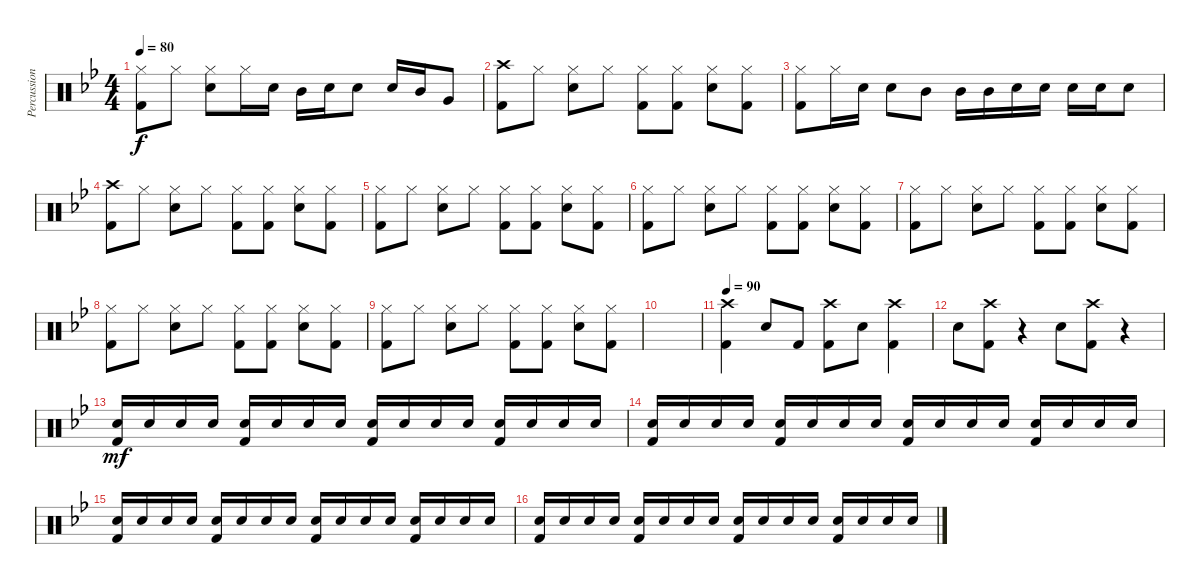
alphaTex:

\track ("Percussion" "Percussion") {instrument percussion}
\staff {score}
\articulation defaults
\ts (4 4)
\tempo 80
\clef neutral
\ks bb
("Hi-Hat (closed)" "Kick (hit) 2").8{dy f} "Hi-Hat (closed)".8 ("Hi-Hat (closed)" "Snare (hit) 2").8 "Hi-Hat (closed)".16 "Snare (hit) 2".16 "Mid Tom (hit)".16 "Snare (hit) 2".16 "Snare (hit) 2".8 "Snare (hit) 2".16 "Mid Tom (hit)".16 "Very Low Tom (hit)".8 |
("Crash high (hit)" "Kick (hit) 2").8 "Hi-Hat (closed)".8 ("Hi-Hat (closed)" "Snare (hit) 2").8 "Hi-Hat (closed)".8 ("Hi-Hat (closed)" "Kick (hit) 2").8 ("Hi-Hat (closed)" "Kick (hit) 2").8 ("Hi-Hat (closed)" "Snare (hit) 2").8 ("Hi-Hat (closed)" "Kick (hit) 2").8 |
("Hi-Hat (closed)" "Kick (hit) 2").8 "Hi-Hat (closed)".16 "Snare (hit) 2".16 "Snare (hit) 2".8 "Mid Tom (hit)".8 "Mid Tom (hit)".16 "Mid Tom (hit)".16 "Snare (hit) 2".16 "Snare (hit) 2".16 "Snare (hit) 2".16 "Snare (hit) 2".16 "Snare (hit) 2".8 |
("Crash high (hit)" "Kick (hit) 2").8 "Hi-Hat (closed)".8 ("Hi-Hat (closed)" "Snare (hit) 2").8 "Hi-Hat (closed)".8 ("Hi-Hat (closed)" "Kick (hit) 2").8 ("Hi-Hat (closed)" "Kick (hit) 2").8 ("Hi-Hat (closed)" "Snare (hit) 2").8 ("Hi-Hat (closed)" "Kick (hit) 2").8 |
("Hi-Hat (closed)" "Kick (hit) 2").8 "Hi-Hat (closed)".8 ("Hi-Hat (closed)" "Snare (hit) 2").8 "Hi-Hat (closed)".8 ("Hi-Hat (closed)" "Kick (hit) 2").8 ("Hi-Hat (closed)" "Kick (hit) 2").8 ("Hi-Hat (closed)" "Snare (hit) 2").8 ("Hi-Hat (closed)" "Kick (hit) 2").8 |
("Hi-Hat (closed)" "Kick (hit) 2").8 "Hi-Hat (closed)".8 ("Hi-Hat (closed)" "Snare (hit) 2").8 "Hi-Hat (closed)".8 ("Hi-Hat (closed)" "Kick (hit) 2").8 ("Hi-Hat (closed)" "Kick (hit) 2").8 ("Hi-Hat (closed)" "Snare (hit) 2").8 ("Hi-Hat (closed)" "Kick (hit) 2").8 |
("Hi-Hat (closed)" "Kick (hit) 2").8 "Hi-Hat (closed)".8 ("Hi-Hat (closed)" "Snare (hit) 2").8 "Hi-Hat (closed)".8 ("Hi-Hat (closed)" "Kick (hit) 2").8 ("Hi-Hat (closed)" "Kick (hit) 2").8 ("Hi-Hat (closed)" "Snare (hit) 2").8 ("Hi-Hat (closed)" "Kick (hit) 2").8 |
("Hi-Hat (closed)" "Kick (hit) 2").8 "Hi-Hat (closed)".8 ("Hi-Hat (closed)" "Snare (hit) 2").8 "Hi-Hat (closed)".8 ("Hi-Hat (closed)" "Kick (hit) 2").8 ("Hi-Hat (closed)" "Kick (hit) 2").8 ("Hi-Hat (closed)" "Snare (hit) 2").8 ("Hi-Hat (closed)" "Kick (hit) 2").8 |
("Hi-Hat (closed)" "Kick (hit) 2").8 "Hi-Hat (closed)".8 ("Hi-Hat (closed)" "Snare (hit) 2").8 "Hi-Hat (closed)".8 ("Hi-Hat (closed)" "Kick (hit) 2").8 ("Hi-Hat (closed)" "Kick (hit) 2").8 ("Hi-Hat (closed)" "Snare (hit) 2").8 ("Hi-Hat (closed)" "Kick (hit) 2").8 |
|
\tempo 90
("Crash high (hit)" "Kick (hit) 2").4{volume 12} "Snare (hit) 2".8 "Kick (hit) 2".8 ("Crash high (hit)" "Kick (hit) 2").8 "Snare (hit) 2".8 ("Crash high (hit)" "Kick (hit) 2").4 |
"Snare (hit) 2".8 ("Crash high (hit)" "Kick (hit) 2").8 r.4 "Snare (hit) 2".8 ("Crash high (hit)" "Kick (hit) 2").8 r.4 |
("Snare (hit) 2" "Kick (hit) 2").16{dy mf} "Snare (hit) 2".16 "Snare (hit) 2".16 "Snare (hit) 2".16 ("Snare (hit) 2" "Kick (hit) 2").16 "Snare (hit) 2".16 "Snare (hit) 2".16 "Snare (hit) 2".16 ("Snare (hit) 2" "Kick (hit) 2").16 "Snare (hit) 2".16 "Snare (hit) 2".16 "Snare (hit) 2".16 ("Snare (hit) 2" "Kick (hit) 2").16 "Snare (hit) 2".16 "Snare (hit) 2".16 "Snare (hit) 2".16 |
("Snare (hit) 2" "Kick (hit) 2").16 "Snare (hit) 2".16 "Snare (hit) 2".16 "Snare (hit) 2".16 ("Snare (hit) 2" "Kick (hit) 2").16 "Snare (hit) 2".16 "Snare (hit) 2".16 "Snare (hit) 2".16 ("Snare (hit) 2" "Kick (hit) 2").16 "Snare (hit) 2".16 "Snare (hit) 2".16 "Snare (hit) 2".16 ("Snare (hit) 2" "Kick (hit) 2").16 "Snare (hit) 2".16 "Snare (hit) 2".16 "Snare (hit) 2".16 |
("Snare (hit) 2" "Kick (hit) 2").16 "Snare (hit) 2".16 "Snare (hit) 2".16 "Snare (hit) 2".16 ("Snare (hit) 2" "Kick (hit) 2").16 "Snare (hit) 2".16 "Snare (hit) 2".16 "Snare (hit) 2".16 ("Snare (hit) 2" "Kick (hit) 2").16 "Snare (hit) 2".16 "Snare (hit) 2".16 "Snare (hit) 2".16 ("Snare (hit) 2" "Kick (hit) 2").16 "Snare (hit) 2".16 "Snare (hit) 2".16 "Snare (hit) 2".16 |
("Snare (hit) 2" "Kick (hit) 2").16 "Snare (hit) 2".16 "Snare (hit) 2".16 "Snare (hit) 2".16 ("Snare (hit) 2" "Kick (hit) 2").16 "Snare (hit) 2".16 "Snare (hit) 2".16 "Snare (hit) 2".16 ("Snare (hit) 2" "Kick (hit) 2").16 "Snare (hit) 2".16 "Snare (hit) 2".16 "Snare (hit) 2".16 ("Snare (hit) 2" "Kick (hit) 2").16 "Snare (hit) 2".16 "Snare (hit) 2".16 "Snare (hit) 2".16
